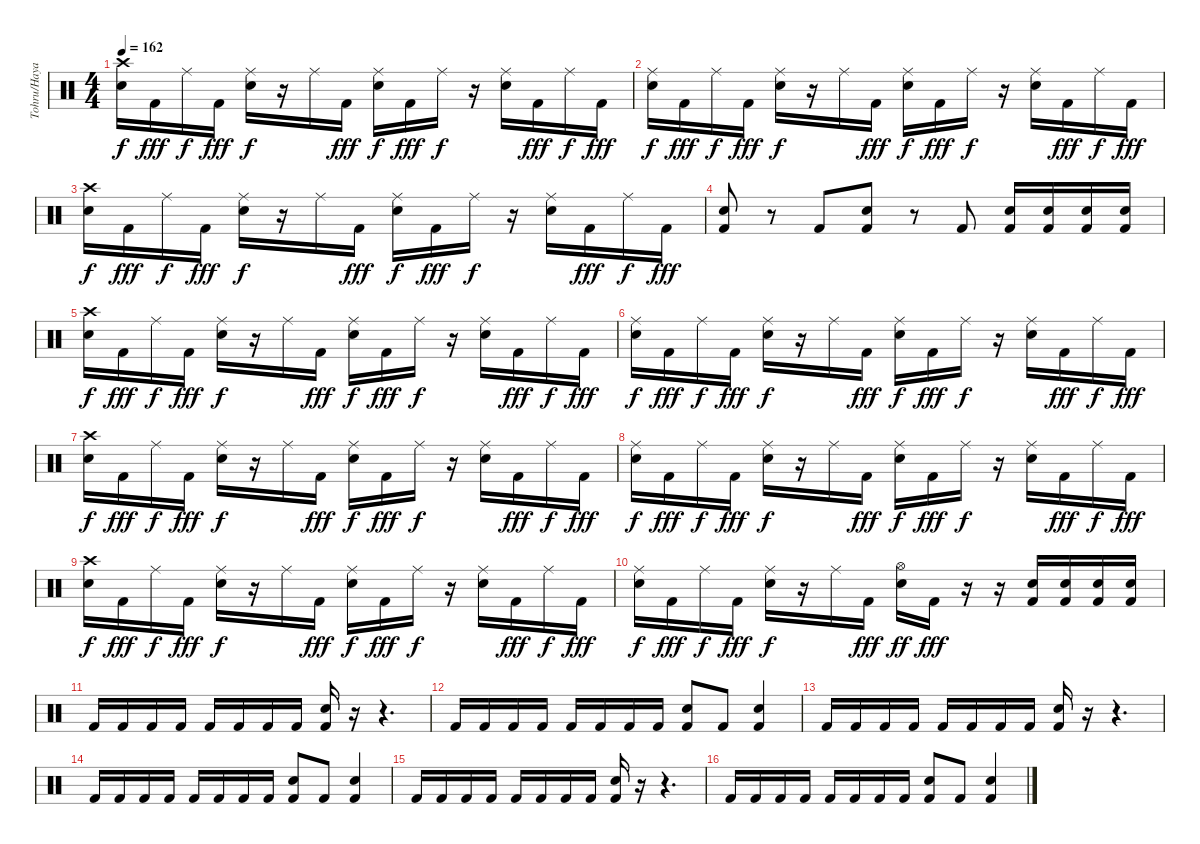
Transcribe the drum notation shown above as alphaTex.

\track ("Tohru/Hayato" "Tohru/Haya") {instrument percussion}
\staff {score}
\articulation defaults
\ts (4 4)
\tempo 162
\clef neutral
\ks c
("Crash high (hit)" "Electric Snare (hit)").16{dy f} "Kick (hit) 2".16{dy fff} "Ride (middle)".16{dy f} "Kick (hit) 2".16{dy fff} ("Ride (middle)" "Electric Snare (hit)").16{dy f} r.16 "Ride (middle)".16 "Kick (hit) 2".16{dy fff} ("Ride (middle)" "Electric Snare (hit)").16{dy f} "Kick (hit) 2".16{dy fff} "Ride (middle)".16{dy f} r.16 ("Ride (middle)" "Electric Snare (hit)").16 "Kick (hit) 2".16{dy fff} "Ride (middle)".16{dy f} "Kick (hit) 2".16{dy fff} |
("Ride (middle)" "Electric Snare (hit)").16{dy f} "Kick (hit) 2".16{dy fff} "Ride (middle)".16{dy f} "Kick (hit) 2".16{dy fff} ("Ride (middle)" "Electric Snare (hit)").16{dy f} r.16 "Ride (middle)".16 "Kick (hit) 2".16{dy fff} ("Ride (middle)" "Electric Snare (hit)").16{dy f} "Kick (hit) 2".16{dy fff} "Ride (middle)".16{dy f} r.16 ("Ride (middle)" "Electric Snare (hit)").16 "Kick (hit) 2".16{dy fff} "Ride (middle)".16{dy f} "Kick (hit) 2".16{dy fff} |
("Crash high (hit)" "Electric Snare (hit)").16{dy f} "Kick (hit) 2".16{dy fff} "Ride (middle)".16{dy f} "Kick (hit) 2".16{dy fff} ("Ride (middle)" "Electric Snare (hit)").16{dy f} r.16 "Ride (middle)".16 "Kick (hit) 2".16{dy fff} ("Ride (middle)" "Electric Snare (hit)").16{dy f} "Kick (hit) 2".16{dy fff} "Ride (middle)".16{dy f} r.16 ("Ride (middle)" "Electric Snare (hit)").16 "Kick (hit) 2".16{dy fff} "Ride (middle)".16{dy f} "Kick (hit) 2".16{dy fff} |
("Electric Snare (hit)" "Kick (hit) 2").8 r.8 "Kick (hit) 2".8 ("Electric Snare (hit)" "Kick (hit) 2").8 r.8 "Kick (hit) 2".8 ("Electric Snare (hit)" "Kick (hit) 2").16 ("Electric Snare (hit)" "Kick (hit) 2").16 ("Electric Snare (hit)" "Kick (hit) 2").16 ("Electric Snare (hit)" "Kick (hit) 2").16 |
("Crash high (hit)" "Electric Snare (hit)").16{dy f} "Kick (hit) 2".16{dy fff} "Ride (middle)".16{dy f} "Kick (hit) 2".16{dy fff} ("Ride (middle)" "Electric Snare (hit)").16{dy f} r.16 "Ride (middle)".16 "Kick (hit) 2".16{dy fff} ("Ride (middle)" "Electric Snare (hit)").16{dy f} "Kick (hit) 2".16{dy fff} "Ride (middle)".16{dy f} r.16 ("Ride (middle)" "Electric Snare (hit)").16 "Kick (hit) 2".16{dy fff} "Ride (middle)".16{dy f} "Kick (hit) 2".16{dy fff} |
("Ride (middle)" "Electric Snare (hit)").16{dy f} "Kick (hit) 2".16{dy fff} "Ride (middle)".16{dy f} "Kick (hit) 2".16{dy fff} ("Ride (middle)" "Electric Snare (hit)").16{dy f} r.16 "Ride (middle)".16 "Kick (hit) 2".16{dy fff} ("Ride (middle)" "Electric Snare (hit)").16{dy f} "Kick (hit) 2".16{dy fff} "Ride (middle)".16{dy f} r.16 ("Ride (middle)" "Electric Snare (hit)").16 "Kick (hit) 2".16{dy fff} "Ride (middle)".16{dy f} "Kick (hit) 2".16{dy fff} |
("Crash high (hit)" "Electric Snare (hit)").16{dy f} "Kick (hit) 2".16{dy fff} "Ride (middle)".16{dy f} "Kick (hit) 2".16{dy fff} ("Ride (middle)" "Electric Snare (hit)").16{dy f} r.16 "Ride (middle)".16 "Kick (hit) 2".16{dy fff} ("Ride (middle)" "Electric Snare (hit)").16{dy f} "Kick (hit) 2".16{dy fff} "Ride (middle)".16{dy f} r.16 ("Ride (middle)" "Electric Snare (hit)").16 "Kick (hit) 2".16{dy fff} "Ride (middle)".16{dy f} "Kick (hit) 2".16{dy fff} |
("Ride (middle)" "Electric Snare (hit)").16{dy f} "Kick (hit) 2".16{dy fff} "Ride (middle)".16{dy f} "Kick (hit) 2".16{dy fff} ("Ride (middle)" "Electric Snare (hit)").16{dy f} r.16 "Ride (middle)".16 "Kick (hit) 2".16{dy fff} ("Ride (middle)" "Electric Snare (hit)").16{dy f} "Kick (hit) 2".16{dy fff} "Ride (middle)".16{dy f} r.16 ("Ride (middle)" "Electric Snare (hit)").16 "Kick (hit) 2".16{dy fff} "Ride (middle)".16{dy f} "Kick (hit) 2".16{dy fff} |
("Crash high (hit)" "Electric Snare (hit)").16{dy f} "Kick (hit) 2".16{dy fff} "Ride (middle)".16{dy f} "Kick (hit) 2".16{dy fff} ("Ride (middle)" "Electric Snare (hit)").16{dy f} r.16 "Ride (middle)".16 "Kick (hit) 2".16{dy fff} ("Ride (middle)" "Electric Snare (hit)").16{dy f} "Kick (hit) 2".16{dy fff} "Ride (middle)".16{dy f} r.16 ("Ride (middle)" "Electric Snare (hit)").16 "Kick (hit) 2".16{dy fff} "Ride (middle)".16{dy f} "Kick (hit) 2".16{dy fff} |
("Ride (middle)" "Electric Snare (hit)").16{dy f} "Kick (hit) 2".16{dy fff} "Ride (middle)".16{dy f} "Kick (hit) 2".16{dy fff} ("Ride (middle)" "Electric Snare (hit)").16{dy f} r.16 "Ride (middle)".16 "Kick (hit) 2".16{dy fff} ("Hi-Hat (open)" "Electric Snare (hit)").16{dy ff} "Kick (hit) 2".16{dy fff} r.16 r.16 ("Electric Snare (hit)" "Kick (hit) 2").16 ("Electric Snare (hit)" "Kick (hit) 2").16 ("Electric Snare (hit)" "Kick (hit) 2").16 ("Electric Snare (hit)" "Kick (hit) 2").16 |
"Kick (hit) 2".16 "Kick (hit) 2".16 "Kick (hit) 2".16 "Kick (hit) 2".16 "Kick (hit) 2".16 "Kick (hit) 2".16 "Kick (hit) 2".16 "Kick (hit) 2".16 ("Electric Snare (hit)" "Kick (hit) 2").16 r.16 r.4{d} |
"Kick (hit) 2".16 "Kick (hit) 2".16 "Kick (hit) 2".16 "Kick (hit) 2".16 "Kick (hit) 2".16 "Kick (hit) 2".16 "Kick (hit) 2".16 "Kick (hit) 2".16 ("Electric Snare (hit)" "Kick (hit) 2").8 "Kick (hit) 2".8 ("Electric Snare (hit)" "Kick (hit) 2").4 |
"Kick (hit) 2".16 "Kick (hit) 2".16 "Kick (hit) 2".16 "Kick (hit) 2".16 "Kick (hit) 2".16 "Kick (hit) 2".16 "Kick (hit) 2".16 "Kick (hit) 2".16 ("Electric Snare (hit)" "Kick (hit) 2").16 r.16 r.4{d} |
"Kick (hit) 2".16 "Kick (hit) 2".16 "Kick (hit) 2".16 "Kick (hit) 2".16 "Kick (hit) 2".16 "Kick (hit) 2".16 "Kick (hit) 2".16 "Kick (hit) 2".16 ("Electric Snare (hit)" "Kick (hit) 2").8 "Kick (hit) 2".8 ("Electric Snare (hit)" "Kick (hit) 2").4 |
"Kick (hit) 2".16 "Kick (hit) 2".16 "Kick (hit) 2".16 "Kick (hit) 2".16 "Kick (hit) 2".16 "Kick (hit) 2".16 "Kick (hit) 2".16 "Kick (hit) 2".16 ("Electric Snare (hit)" "Kick (hit) 2").16 r.16 r.4{d} |
"Kick (hit) 2".16 "Kick (hit) 2".16 "Kick (hit) 2".16 "Kick (hit) 2".16 "Kick (hit) 2".16 "Kick (hit) 2".16 "Kick (hit) 2".16 "Kick (hit) 2".16 ("Electric Snare (hit)" "Kick (hit) 2").8 "Kick (hit) 2".8 ("Electric Snare (hit)" "Kick (hit) 2").4
